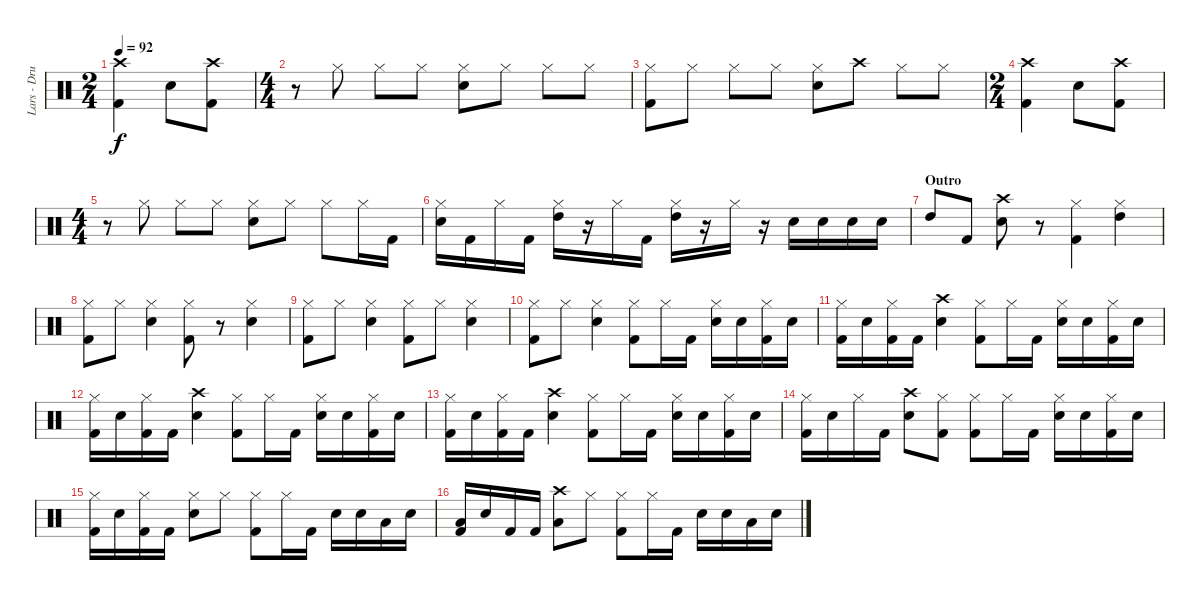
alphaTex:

\track ("Lars - Drums" "Lars - Dru") {instrument percussion}
\staff {score}
\articulation defaults
\ts (2 4)
\tempo 92
\clef neutral
\ks c
("Crash high (hit)" "Kick (hit) 2").4{dy f} "Electric Snare (hit)".8 ("Crash high (hit)" "Kick (hit) 2").8 |
\ts (4 4)
r.8 "Hi-Hat (closed)".8 "Hi-Hat (closed)".8 "Hi-Hat (closed)".8 ("Hi-Hat (closed)" "Electric Snare (hit)").8 "Hi-Hat (closed)".8 "Hi-Hat (closed)".8 "Hi-Hat (closed)".8 |
("Hi-Hat (closed)" "Kick (hit) 2").8 "Hi-Hat (closed)".8 "Hi-Hat (closed)".8 "Hi-Hat (closed)".8 ("Hi-Hat (closed)" "Electric Snare (hit)").8 "Crash high (hit)".8 "Hi-Hat (closed)".8 "Hi-Hat (closed)".8 |
\ts (2 4)
("Crash high (hit)" "Kick (hit) 2").4 "Electric Snare (hit)".8 ("Crash high (hit)" "Kick (hit) 2").8 |
\ts (4 4)
r.8 "Hi-Hat (closed)".8 "Hi-Hat (closed)".8 "Hi-Hat (closed)".8 ("Hi-Hat (closed)" "Electric Snare (hit)").8 "Hi-Hat (closed)".8 "Hi-Hat (closed)".8 "Hi-Hat (closed)".16 "Kick (hit) 2".16 |
("Hi-Hat (closed)" "Electric Snare (hit)").16 "Kick (hit) 2".16 "Hi-Hat (closed)".16 "Kick (hit) 2".16 ("Hi-Hat (closed)" "High Tom (hit)").16 r.16 "Hi-Hat (closed)".16 "Kick (hit) 2".16 ("Hi-Hat (closed)" "High Tom (hit)").16 r.16 "Hi-Hat (closed)".16 r.16 "Electric Snare (hit)".16 "Electric Snare (hit)".16 "Electric Snare (hit)".16 "Electric Snare (hit)".16 |
\section ("" "Outro")
"High Tom (hit)".8 "Kick (hit) 2".8 ("Crash high (hit)" "Electric Snare (hit)").8 r.8 ("Hi-Hat (closed)" "Kick (hit) 2").4 ("Hi-Hat (closed)" "High Tom (hit)").4 |
("Hi-Hat (closed)" "Kick (hit) 2").8 "Hi-Hat (closed)".8 ("Hi-Hat (closed)" "Electric Snare (hit)").4 ("Hi-Hat (closed)" "Kick (hit) 2").8 r.8 ("Hi-Hat (closed)" "Electric Snare (hit)").4 |
("Hi-Hat (closed)" "Kick (hit) 2").8 "Hi-Hat (closed)".8 ("Hi-Hat (closed)" "Electric Snare (hit)").4 ("Hi-Hat (closed)" "Kick (hit) 2").8 "Hi-Hat (closed)".8 ("Hi-Hat (closed)" "Electric Snare (hit)").4 |
("Hi-Hat (closed)" "Kick (hit) 2").8 "Hi-Hat (closed)".8 ("Hi-Hat (closed)" "Electric Snare (hit)").4 ("Hi-Hat (closed)" "Kick (hit) 2").8 "Hi-Hat (closed)".16 "Kick (hit) 2".16 ("Hi-Hat (closed)" "Electric Snare (hit)").16 "Electric Snare (hit)".16 ("Hi-Hat (closed)" "Kick (hit) 2").16 "Electric Snare (hit)".16 |
("Hi-Hat (closed)" "Kick (hit) 2").16 "Electric Snare (hit)".16 ("Hi-Hat (closed)" "Kick (hit) 2").16 "Kick (hit) 2".16 ("Crash high (hit)" "Electric Snare (hit)").4 ("Hi-Hat (closed)" "Kick (hit) 2").8 "Hi-Hat (closed)".16 "Kick (hit) 2".16 ("Hi-Hat (closed)" "Electric Snare (hit)").16 "Electric Snare (hit)".16 ("Hi-Hat (closed)" "Kick (hit) 2").16 "Electric Snare (hit)".16 |
("Hi-Hat (closed)" "Kick (hit) 2").16 "Electric Snare (hit)".16 ("Hi-Hat (closed)" "Kick (hit) 2").16 "Kick (hit) 2".16 ("Crash high (hit)" "Electric Snare (hit)").4 ("Hi-Hat (closed)" "Kick (hit) 2").8 "Hi-Hat (closed)".16 "Kick (hit) 2".16 ("Hi-Hat (closed)" "Electric Snare (hit)").16 "Electric Snare (hit)".16 ("Hi-Hat (closed)" "Kick (hit) 2").16 "Electric Snare (hit)".16 |
("Hi-Hat (closed)" "Kick (hit) 2").16 "Electric Snare (hit)".16 ("Hi-Hat (closed)" "Kick (hit) 2").16 "Kick (hit) 2".16 ("Crash high (hit)" "Electric Snare (hit)").4 ("Hi-Hat (closed)" "Kick (hit) 2").8 "Hi-Hat (closed)".16 "Kick (hit) 2".16 ("Hi-Hat (closed)" "Electric Snare (hit)").16 "Electric Snare (hit)".16 ("Hi-Hat (closed)" "Kick (hit) 2").16 "Electric Snare (hit)".16 |
("Hi-Hat (closed)" "Kick (hit) 2").16 "Electric Snare (hit)".16 "Hi-Hat (closed)".16 "Kick (hit) 2".16 ("Crash high (hit)" "Electric Snare (hit)").8 ("Hi-Hat (closed)" "Kick (hit) 2").8 ("Hi-Hat (closed)" "Kick (hit) 2").8 "Hi-Hat (closed)".16 "Kick (hit) 2".16 ("Hi-Hat (closed)" "Electric Snare (hit)").16 "Electric Snare (hit)".16 ("Hi-Hat (closed)" "Kick (hit) 2").16 "Electric Snare (hit)".16 |
("Hi-Hat (closed)" "Kick (hit) 2").16 "Electric Snare (hit)".16 ("Hi-Hat (closed)" "Kick (hit) 2").16 "Kick (hit) 2".16 ("Hi-Hat (closed)" "Electric Snare (hit)").8 "Hi-Hat (closed)".8 ("Hi-Hat (closed)" "Kick (hit) 2").8 "Hi-Hat (closed)".16 "Kick (hit) 2".16 "Electric Snare (hit)".16 "Electric Snare (hit)".16 "Low Tom (hit)".16 "Electric Snare (hit)".16 |
("Low Tom (hit)" "Kick (hit) 2").16 "Electric Snare (hit)".16 "Kick (hit) 2".16 "Kick (hit) 2".16 ("Crash high (hit)" "Low Tom (hit)").8 "Hi-Hat (closed)".8 ("Hi-Hat (closed)" "Kick (hit) 2").8 "Hi-Hat (closed)".16 "Kick (hit) 2".16 "Electric Snare (hit)".16 "Electric Snare (hit)".16 "Low Tom (hit)".16 "Electric Snare (hit)".16
